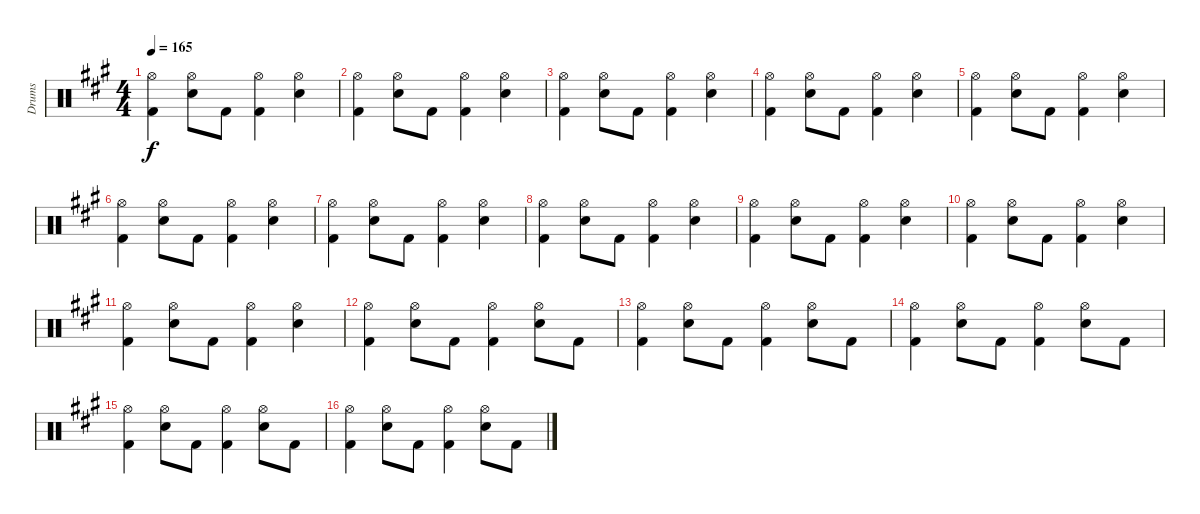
\track ("Drums" "Drums") {instrument percussion}
\staff {score}
\articulation defaults
\ts (4 4)
\tempo 165
\clef neutral
\ks a
("Hi-Hat (open)" "Kick (hit) 2").4{dy f} ("Hi-Hat (open)" "Electric Snare (hit)").8 "Kick (hit) 2".8 ("Hi-Hat (open)" "Kick (hit) 2").4 ("Hi-Hat (open)" "Electric Snare (hit)").4 |
("Hi-Hat (open)" "Kick (hit) 2").4 ("Hi-Hat (open)" "Electric Snare (hit)").8 "Kick (hit) 2".8 ("Hi-Hat (open)" "Kick (hit) 2").4 ("Hi-Hat (open)" "Electric Snare (hit)").4 |
("Hi-Hat (open)" "Kick (hit) 2").4 ("Hi-Hat (open)" "Electric Snare (hit)").8 "Kick (hit) 2".8 ("Hi-Hat (open)" "Kick (hit) 2").4 ("Hi-Hat (open)" "Electric Snare (hit)").4 |
("Hi-Hat (open)" "Kick (hit) 2").4 ("Hi-Hat (open)" "Electric Snare (hit)").8 "Kick (hit) 2".8 ("Hi-Hat (open)" "Kick (hit) 2").4 ("Hi-Hat (open)" "Electric Snare (hit)").4 |
("Hi-Hat (open)" "Kick (hit) 2").4 ("Hi-Hat (open)" "Electric Snare (hit)").8 "Kick (hit) 2".8 ("Hi-Hat (open)" "Kick (hit) 2").4 ("Hi-Hat (open)" "Electric Snare (hit)").4 |
("Hi-Hat (open)" "Kick (hit) 2").4 ("Hi-Hat (open)" "Electric Snare (hit)").8 "Kick (hit) 2".8 ("Hi-Hat (open)" "Kick (hit) 2").4 ("Hi-Hat (open)" "Electric Snare (hit)").4 |
("Hi-Hat (open)" "Kick (hit) 2").4 ("Hi-Hat (open)" "Electric Snare (hit)").8 "Kick (hit) 2".8 ("Hi-Hat (open)" "Kick (hit) 2").4 ("Hi-Hat (open)" "Electric Snare (hit)").4 |
("Hi-Hat (open)" "Kick (hit) 2").4 ("Hi-Hat (open)" "Electric Snare (hit)").8 "Kick (hit) 2".8 ("Hi-Hat (open)" "Kick (hit) 2").4 ("Hi-Hat (open)" "Electric Snare (hit)").4 |
("Hi-Hat (open)" "Kick (hit) 2").4 ("Hi-Hat (open)" "Electric Snare (hit)").8 "Kick (hit) 2".8 ("Hi-Hat (open)" "Kick (hit) 2").4 ("Hi-Hat (open)" "Electric Snare (hit)").4 |
("Hi-Hat (open)" "Kick (hit) 2").4 ("Hi-Hat (open)" "Electric Snare (hit)").8 "Kick (hit) 2".8 ("Hi-Hat (open)" "Kick (hit) 2").4 ("Hi-Hat (open)" "Electric Snare (hit)").4 |
("Hi-Hat (open)" "Kick (hit) 2").4 ("Hi-Hat (open)" "Electric Snare (hit)").8 "Kick (hit) 2".8 ("Hi-Hat (open)" "Kick (hit) 2").4 ("Hi-Hat (open)" "Electric Snare (hit)").4 |
("Hi-Hat (open)" "Kick (hit) 2").4 ("Hi-Hat (open)" "Electric Snare (hit)").8 "Kick (hit) 2".8 ("Hi-Hat (open)" "Kick (hit) 2").4 ("Hi-Hat (open)" "Electric Snare (hit)").8 "Kick (hit) 2".8 |
("Hi-Hat (open)" "Kick (hit) 2").4 ("Hi-Hat (open)" "Electric Snare (hit)").8 "Kick (hit) 2".8 ("Hi-Hat (open)" "Kick (hit) 2").4 ("Hi-Hat (open)" "Electric Snare (hit)").8 "Kick (hit) 2".8 |
("Hi-Hat (open)" "Kick (hit) 2").4 ("Hi-Hat (open)" "Electric Snare (hit)").8 "Kick (hit) 2".8 ("Hi-Hat (open)" "Kick (hit) 2").4 ("Hi-Hat (open)" "Electric Snare (hit)").8 "Kick (hit) 2".8 |
("Hi-Hat (open)" "Kick (hit) 2").4 ("Hi-Hat (open)" "Electric Snare (hit)").8 "Kick (hit) 2".8 ("Hi-Hat (open)" "Kick (hit) 2").4 ("Hi-Hat (open)" "Electric Snare (hit)").8 "Kick (hit) 2".8 |
("Hi-Hat (open)" "Kick (hit) 2").4 ("Hi-Hat (open)" "Electric Snare (hit)").8 "Kick (hit) 2".8 ("Hi-Hat (open)" "Kick (hit) 2").4 ("Hi-Hat (open)" "Electric Snare (hit)").8 "Kick (hit) 2".8
